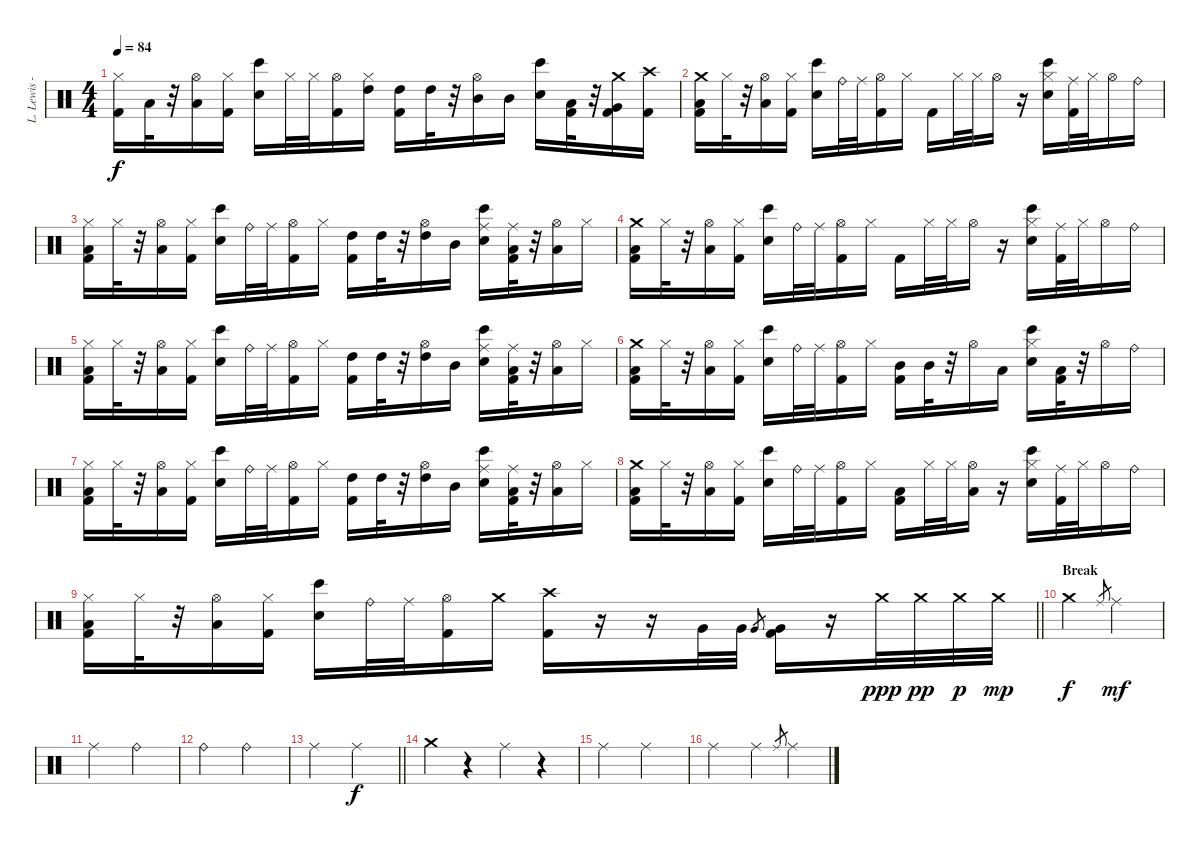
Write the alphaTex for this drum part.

\track ("L. Lewis - Drums" "L. Lewis -") {instrument percussion}
\staff {score}
\articulation defaults
\ts (4 4)
\tempo 84
\clef neutral
\ks c
("Hi-Hat (closed)" "Kick (hit) 2").16{dy f} "Low Tom (hit)".32 r.32 ("Hi-Hat (open)" "Low Tom (hit)").16 ("Hi-Hat (closed)" "Kick (hit) 2").16 ("Electric Snare (hit)" "Bongo High (hit)").16 "Hi-Hat (closed)".32 "Hi-Hat (closed)".32 ("Hi-Hat (open)" "Kick (hit) 2").16 ("Hi-Hat (closed)" "High Tom (hit)").16 ("High Tom (hit)" "Kick (hit) 2").16 "High Tom (hit)".32 r.32 ("Hi-Hat (open)" "Mid Tom (hit)").16 "Mid Tom (hit)".16 ("Electric Snare (hit)" "Bongo High (hit)").16 ("Low Tom (hit)" "Kick (hit) 2").32 r.32 ("Crash medium (hit)" "Very Low Tom (hit)" "Kick (hit) 2").16 ("Crash high (hit)" "Kick (hit) 2").16 |
("Crash medium (hit)" "Low Tom (hit)" "Kick (hit) 2").16 "Hi-Hat (closed)".32 r.32 ("Hi-Hat (open)" "Low Tom (hit)").16 ("Hi-Hat (closed)" "Kick (hit) 2").16 ("Electric Snare (hit)" "Bongo High (hit)").16 "Ride (bell)".32 "Ride (middle)".32 ("Hi-Hat (open)" "Kick (hit) 2").16 "Hi-Hat (closed)".16 "Kick (hit) 2".16 "Hi-Hat (closed)".32 "Hi-Hat (closed)".32 "Hi-Hat (open)".16 r.16 ("Hi-Hat (closed)" "Electric Snare (hit)" "Bongo High (hit)").16 ("Ride (middle)" "Kick (hit) 2").32 "Hi-Hat (closed)".32 "Hi-Hat (open)".16 "Ride (bell)".16 |
("Hi-Hat (closed)" "Low Tom (hit)" "Kick (hit) 2").16 "Hi-Hat (closed)".32 r.32 ("Hi-Hat (open)" "Low Tom (hit)").16 ("Hi-Hat (closed)" "Kick (hit) 2").16 ("Electric Snare (hit)" "Bongo High (hit)").16 "Ride (bell)".32 "Ride (middle)".32 ("Hi-Hat (open)" "Kick (hit) 2").16 "Hi-Hat (closed)".16 ("High Tom (hit)" "Kick (hit) 2").16 "High Tom (hit)".32 r.32 ("Hi-Hat (open)" "High Tom (hit)").16 "Mid Tom (hit)".16 ("Ride (middle)" "Electric Snare (hit)" "Bongo High (hit)").16 ("Ride (middle)" "Low Tom (hit)" "Kick (hit) 2").32 r.32 ("Hi-Hat (open)" "Low Tom (hit)").16 "Hi-Hat (closed)".16 |
("Crash medium (hit)" "Low Tom (hit)" "Kick (hit) 2").16 "Hi-Hat (closed)".32 r.32 ("Hi-Hat (open)" "Low Tom (hit)").16 ("Hi-Hat (closed)" "Kick (hit) 2").16 ("Electric Snare (hit)" "Bongo High (hit)").16 "Ride (bell)".32 "Ride (middle)".32 ("Hi-Hat (open)" "Kick (hit) 2").16 "Hi-Hat (closed)".16 "Kick (hit) 2".16 "Hi-Hat (closed)".32 "Hi-Hat (closed)".32 "Hi-Hat (open)".16 r.16 ("Hi-Hat (closed)" "Electric Snare (hit)" "Bongo High (hit)").16 ("Ride (middle)" "Kick (hit) 2").32 "Hi-Hat (closed)".32 "Hi-Hat (open)".16 "Ride (bell)".16 |
("Hi-Hat (closed)" "Low Tom (hit)" "Kick (hit) 2").16 "Hi-Hat (closed)".32 r.32 ("Hi-Hat (open)" "Low Tom (hit)").16 ("Hi-Hat (closed)" "Kick (hit) 2").16 ("Electric Snare (hit)" "Bongo High (hit)").16 "Ride (bell)".32 "Ride (middle)".32 ("Hi-Hat (open)" "Kick (hit) 2").16 "Hi-Hat (closed)".16 ("High Tom (hit)" "Kick (hit) 2").16 "High Tom (hit)".32 r.32 ("Hi-Hat (open)" "High Tom (hit)").16 "Mid Tom (hit)".16 ("Ride (middle)" "Electric Snare (hit)" "Bongo High (hit)").16 ("Ride (middle)" "Low Tom (hit)" "Kick (hit) 2").32 r.32 ("Hi-Hat (open)" "Low Tom (hit)").16 "Hi-Hat (closed)".16 |
("Crash medium (hit)" "Low Tom (hit)" "Kick (hit) 2").16 "Hi-Hat (closed)".32 r.32 ("Hi-Hat (open)" "Low Tom (hit)").16 ("Hi-Hat (closed)" "Kick (hit) 2").16 ("Electric Snare (hit)" "Bongo High (hit)").16 "Ride (bell)".32 "Ride (middle)".32 ("Hi-Hat (open)" "Kick (hit) 2").16 "Hi-Hat (closed)".16 ("Mid Tom (hit)" "Kick (hit) 2").16 "Mid Tom (hit)".32 r.32 "Hi-Hat (open)".16 "Low Tom (hit)".16 ("Hi-Hat (closed)" "Electric Snare (hit)" "Bongo High (hit)").16 ("Low Tom (hit)" "Kick (hit) 2").32 r.32 "Hi-Hat (open)".16 "Ride (bell)".16 |
("Hi-Hat (closed)" "Low Tom (hit)" "Kick (hit) 2").16 "Hi-Hat (closed)".32 r.32 ("Hi-Hat (open)" "Low Tom (hit)").16 ("Hi-Hat (closed)" "Kick (hit) 2").16 ("Electric Snare (hit)" "Bongo High (hit)").16 "Ride (bell)".32 "Ride (middle)".32 ("Hi-Hat (open)" "Kick (hit) 2").16 "Hi-Hat (closed)".16 ("High Tom (hit)" "Kick (hit) 2").16 "High Tom (hit)".32 r.32 ("Hi-Hat (open)" "High Tom (hit)").16 "Mid Tom (hit)".16 ("Ride (middle)" "Electric Snare (hit)" "Bongo High (hit)").16 ("Ride (middle)" "Low Tom (hit)" "Kick (hit) 2").32 r.32 ("Hi-Hat (open)" "Low Tom (hit)").16 "Hi-Hat (closed)".16 |
("Crash medium (hit)" "Low Tom (hit)" "Kick (hit) 2").16 "Hi-Hat (closed)".32 r.32 ("Hi-Hat (open)" "Low Tom (hit)").16 ("Hi-Hat (closed)" "Kick (hit) 2").16 ("Electric Snare (hit)" "Bongo High (hit)").16 "Ride (bell)".32 "Ride (middle)".32 ("Hi-Hat (open)" "Kick (hit) 2").16 "Hi-Hat (closed)".16 ("Low Tom (hit)" "Kick (hit) 2").16 "Hi-Hat (closed)".32 "Hi-Hat (closed)".32 ("Hi-Hat (open)" "Low Tom (hit)").16 r.16 ("Hi-Hat (closed)" "Electric Snare (hit)" "Bongo High (hit)").16 ("Ride (middle)" "Kick (hit) 2").32 "Hi-Hat (closed)".32 "Hi-Hat (open)".16 "Ride (bell)".16 |
\barLineRight lightlight
("Hi-Hat (closed)" "Low Tom (hit)" "Kick (hit) 2").16 "Hi-Hat (closed)".32 r.32 ("Hi-Hat (open)" "Low Tom (hit)").16 ("Hi-Hat (closed)" "Kick (hit) 2").16 ("Electric Snare (hit)" "Bongo High (hit)").16 "Ride (bell)".32 "Ride (middle)".32 ("Hi-Hat (open)" "Kick (hit) 2").16 "Crash medium (hit)".16 ("Crash high (hit)" "Kick (hit) 2").16 r.16 r.16 "Very Low Tom (hit)".32 "Very Low Tom (hit)".32 "Very Low Tom (hit)".8{gr} ("Very Low Tom (hit)" "Kick (hit) 2").16 r.16 "Crash medium (hit)".32{dy ppp} "Crash medium (hit)".32{dy pp} "Crash medium (hit)".32{dy p} "Crash medium (hit)".32{dy mp} |
\section ("" "Break")
"Crash medium (hit)".2{dy f} "Ride (middle)".8{gr} "Ride (middle)".2{dy mf} |
"Ride (middle)".2 "Ride (bell)".2 |
"Ride (bell)".2 "Ride (bell)".2 |
\barLineRight lightlight "Ride (middle)".2 "Ride (middle)".2{dy f}
|
"Crash medium (hit)".4 r.4 "Ride (middle)".4 r.4 |
"Ride (middle)".2 "Ride (middle)".2 |
"Ride (middle)".2 "Ride (middle)".4 "Ride (middle)".8{gr} "Ride (middle)".4
